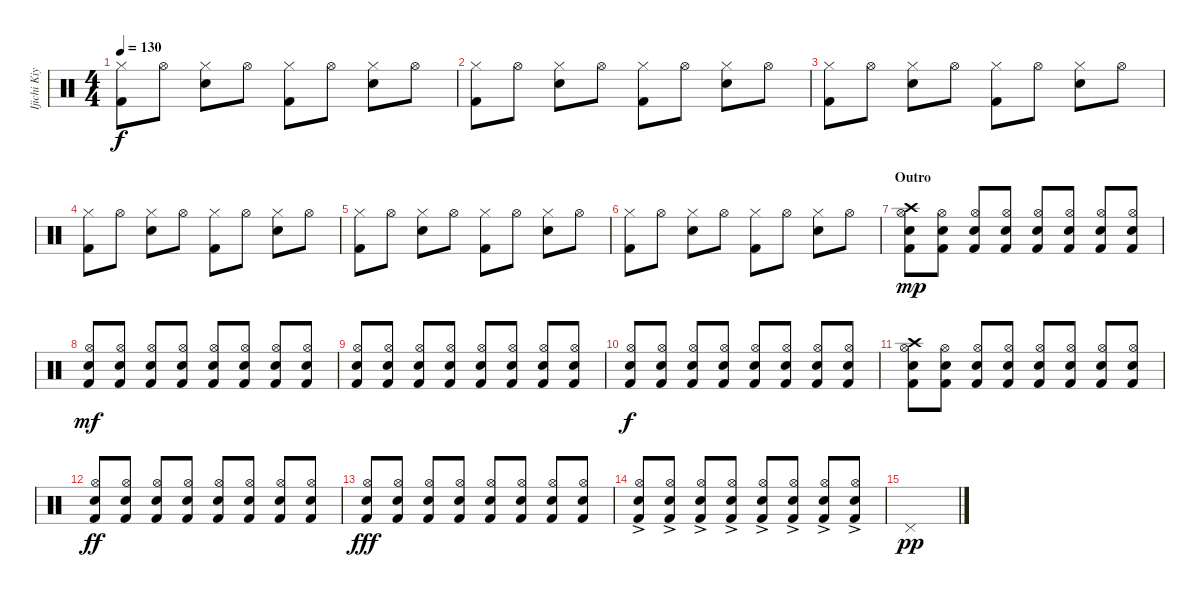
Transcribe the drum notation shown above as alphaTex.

\track ("Ijichi Kiyoshi (Drums)" "Ijichi Kiy") {instrument percussion}
\staff {score}
\articulation defaults
\ts (4 4)
\tempo 130
\clef neutral
\ks c
("Hi-Hat (closed)" "Kick (hit) 2").8{dy f} "Hi-Hat (open)".8 ("Hi-Hat (closed)" "Snare (hit) 2").8 "Hi-Hat (open)".8 ("Hi-Hat (closed)" "Kick (hit) 2").8 "Hi-Hat (open)".8 ("Hi-Hat (closed)" "Snare (hit) 2").8 "Hi-Hat (open)".8 |
("Hi-Hat (closed)" "Kick (hit) 2").8 "Hi-Hat (open)".8 ("Hi-Hat (closed)" "Snare (hit) 2").8 "Hi-Hat (open)".8 ("Hi-Hat (closed)" "Kick (hit) 2").8 "Hi-Hat (open)".8 ("Hi-Hat (closed)" "Snare (hit) 2").8 "Hi-Hat (open)".8 |
("Hi-Hat (closed)" "Kick (hit) 2").8 "Hi-Hat (open)".8 ("Hi-Hat (closed)" "Snare (hit) 2").8 "Hi-Hat (open)".8 ("Hi-Hat (closed)" "Kick (hit) 2").8 "Hi-Hat (open)".8 ("Hi-Hat (closed)" "Snare (hit) 2").8 "Hi-Hat (open)".8 |
("Hi-Hat (closed)" "Kick (hit) 2").8 "Hi-Hat (open)".8 ("Hi-Hat (closed)" "Snare (hit) 2").8 "Hi-Hat (open)".8 ("Hi-Hat (closed)" "Kick (hit) 2").8 "Hi-Hat (open)".8 ("Hi-Hat (closed)" "Snare (hit) 2").8 "Hi-Hat (open)".8 |
("Hi-Hat (closed)" "Kick (hit) 2").8 "Hi-Hat (open)".8 ("Hi-Hat (closed)" "Snare (hit) 2").8 "Hi-Hat (open)".8 ("Hi-Hat (closed)" "Kick (hit) 2").8 "Hi-Hat (open)".8 ("Hi-Hat (closed)" "Snare (hit) 2").8 "Hi-Hat (open)".8 |
("Hi-Hat (closed)" "Kick (hit) 2").8 "Hi-Hat (open)".8 ("Hi-Hat (closed)" "Snare (hit) 2").8 "Hi-Hat (open)".8 ("Hi-Hat (closed)" "Kick (hit) 2").8 "Hi-Hat (open)".8 ("Hi-Hat (closed)" "Snare (hit) 2").8 "Hi-Hat (open)".8 |
\section ("" "Outro")
("Crash high (hit)" "Hi-Hat (open)" "Snare (hit) 2" "Kick (hit) 2").8{dy mp} ("Hi-Hat (open)" "Snare (hit) 2" "Kick (hit) 2").8 ("Hi-Hat (open)" "Snare (hit) 2" "Kick (hit) 2").8 ("Hi-Hat (open)" "Snare (hit) 2" "Kick (hit) 2").8 ("Hi-Hat (open)" "Snare (hit) 2" "Kick (hit) 2").8 ("Hi-Hat (open)" "Snare (hit) 2" "Kick (hit) 2").8 ("Hi-Hat (open)" "Snare (hit) 2" "Kick (hit) 2").8 ("Hi-Hat (open)" "Snare (hit) 2" "Kick (hit) 2").8 |
("Hi-Hat (open)" "Snare (hit) 2" "Kick (hit) 2").8{dy mf} ("Hi-Hat (open)" "Snare (hit) 2" "Kick (hit) 2").8 ("Hi-Hat (open)" "Snare (hit) 2" "Kick (hit) 2").8 ("Hi-Hat (open)" "Snare (hit) 2" "Kick (hit) 2").8 ("Hi-Hat (open)" "Snare (hit) 2" "Kick (hit) 2").8 ("Hi-Hat (open)" "Snare (hit) 2" "Kick (hit) 2").8 ("Hi-Hat (open)" "Snare (hit) 2" "Kick (hit) 2").8 ("Hi-Hat (open)" "Snare (hit) 2" "Kick (hit) 2").8 |
("Hi-Hat (open)" "Snare (hit) 2" "Kick (hit) 2").8 ("Hi-Hat (open)" "Snare (hit) 2" "Kick (hit) 2").8 ("Hi-Hat (open)" "Snare (hit) 2" "Kick (hit) 2").8 ("Hi-Hat (open)" "Snare (hit) 2" "Kick (hit) 2").8 ("Hi-Hat (open)" "Snare (hit) 2" "Kick (hit) 2").8 ("Hi-Hat (open)" "Snare (hit) 2" "Kick (hit) 2").8 ("Hi-Hat (open)" "Snare (hit) 2" "Kick (hit) 2").8 ("Hi-Hat (open)" "Snare (hit) 2" "Kick (hit) 2").8 |
("Hi-Hat (open)" "Snare (hit) 2" "Kick (hit) 2").8{dy f} ("Hi-Hat (open)" "Snare (hit) 2" "Kick (hit) 2").8 ("Hi-Hat (open)" "Snare (hit) 2" "Kick (hit) 2").8 ("Hi-Hat (open)" "Snare (hit) 2" "Kick (hit) 2").8 ("Hi-Hat (open)" "Snare (hit) 2" "Kick (hit) 2").8 ("Hi-Hat (open)" "Snare (hit) 2" "Kick (hit) 2").8 ("Hi-Hat (open)" "Snare (hit) 2" "Kick (hit) 2").8 ("Hi-Hat (open)" "Snare (hit) 2" "Kick (hit) 2").8 |
("Crash high (hit)" "Hi-Hat (open)" "Snare (hit) 2" "Kick (hit) 2").8 ("Hi-Hat (open)" "Snare (hit) 2" "Kick (hit) 2").8 ("Hi-Hat (open)" "Snare (hit) 2" "Kick (hit) 2").8 ("Hi-Hat (open)" "Snare (hit) 2" "Kick (hit) 2").8 ("Hi-Hat (open)" "Snare (hit) 2" "Kick (hit) 2").8 ("Hi-Hat (open)" "Snare (hit) 2" "Kick (hit) 2").8 ("Hi-Hat (open)" "Snare (hit) 2" "Kick (hit) 2").8 ("Hi-Hat (open)" "Snare (hit) 2" "Kick (hit) 2").8 |
("Hi-Hat (open)" "Snare (hit) 2" "Kick (hit) 2").8{dy ff} ("Hi-Hat (open)" "Snare (hit) 2" "Kick (hit) 2").8 ("Hi-Hat (open)" "Snare (hit) 2" "Kick (hit) 2").8 ("Hi-Hat (open)" "Snare (hit) 2" "Kick (hit) 2").8 ("Hi-Hat (open)" "Snare (hit) 2" "Kick (hit) 2").8 ("Hi-Hat (open)" "Snare (hit) 2" "Kick (hit) 2").8 ("Hi-Hat (open)" "Snare (hit) 2" "Kick (hit) 2").8 ("Hi-Hat (open)" "Snare (hit) 2" "Kick (hit) 2").8 |
("Hi-Hat (open)" "Snare (hit) 2" "Kick (hit) 2").8{dy fff} ("Hi-Hat (open)" "Snare (hit) 2" "Kick (hit) 2").8 ("Hi-Hat (open)" "Snare (hit) 2" "Kick (hit) 2").8 ("Hi-Hat (open)" "Snare (hit) 2" "Kick (hit) 2").8 ("Hi-Hat (open)" "Snare (hit) 2" "Kick (hit) 2").8 ("Hi-Hat (open)" "Snare (hit) 2" "Kick (hit) 2").8 ("Hi-Hat (open)" "Snare (hit) 2" "Kick (hit) 2").8 ("Hi-Hat (open)" "Snare (hit) 2" "Kick (hit) 2").8 |
("Hi-Hat (open)"{ac} "Snare (hit) 2"{ac} "Kick (hit) 2"{ac}).8 ("Hi-Hat (open)"{ac} "Snare (hit) 2"{ac} "Kick (hit) 2"{ac}).8 ("Hi-Hat (open)"{ac} "Snare (hit) 2"{ac} "Kick (hit) 2"{ac}).8 ("Hi-Hat (open)"{ac} "Snare (hit) 2"{ac} "Kick (hit) 2"{ac}).8 ("Hi-Hat (open)"{ac} "Snare (hit) 2"{ac} "Kick (hit) 2"{ac}).8 ("Hi-Hat (open)"{ac} "Snare (hit) 2"{ac} "Kick (hit) 2"{ac}).8 ("Hi-Hat (open)"{ac} "Snare (hit) 2"{ac} "Kick (hit) 2"{ac}).8 ("Hi-Hat (open)"{ac} "Snare (hit) 2"{ac} "Kick (hit) 2"{ac}).8 |
"Pedal Hi-Hat (hit)".1{dy pp}
